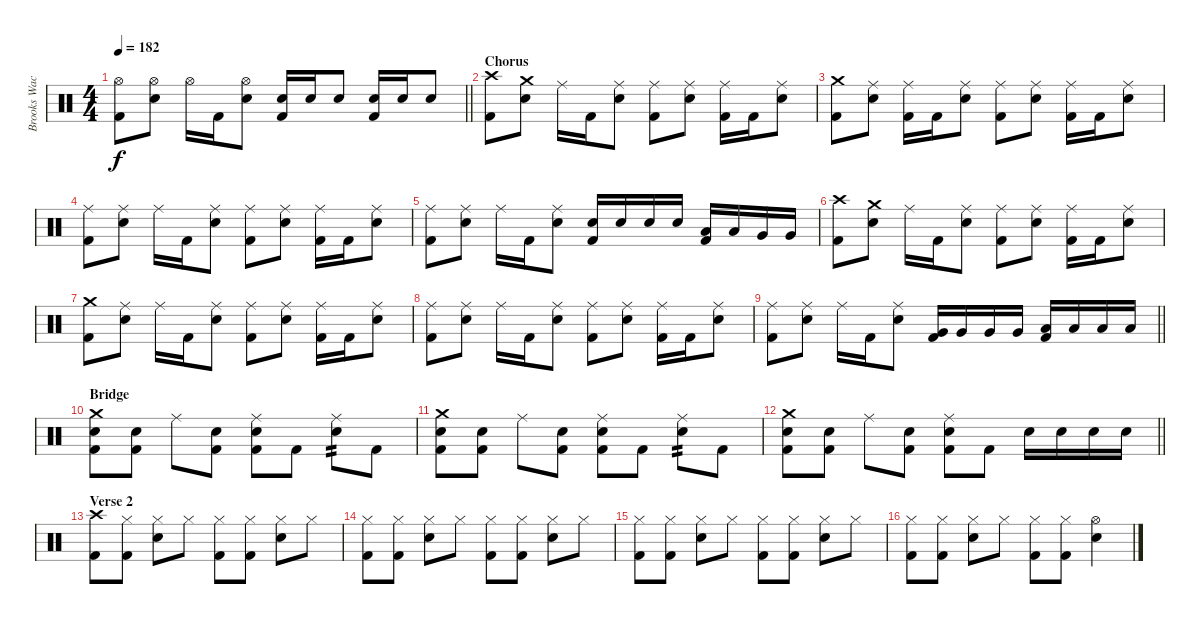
\track ("Brooks Wackerman" "Brooks Wac") {instrument percussion}
\staff {score}
\articulation defaults
\ts (4 4)
\tempo 182
\clef neutral
\barLineRight lightlight
\ks c
("Hi-Hat (open)" "Kick (hit) 2").8{dy f} ("Hi-Hat (open)" "Electric Snare (hit)").8 "Hi-Hat (open)".16 "Kick (hit) 2".16 ("Hi-Hat (open)" "Electric Snare (hit)").8 ("Electric Snare (hit)" "Kick (hit) 2").16 "Electric Snare (hit)".16 "Electric Snare (hit)".8 ("Electric Snare (hit)" "Kick (hit) 2").16 "Electric Snare (hit)".16 "Electric Snare (hit)".8 |
\section ("" "Chorus")
("Crash high (hit)" "Kick (hit) 2").8 ("Crash medium (hit)" "Electric Snare (hit)").8 "Ride (middle)".16 "Kick (hit) 2".16 ("Ride (middle)" "Electric Snare (hit)").8 ("Ride (middle)" "Kick (hit) 2").8 ("Ride (middle)" "Electric Snare (hit)").8 ("Ride (middle)" "Kick (hit) 2").16 "Kick (hit) 2".16 ("Ride (middle)" "Electric Snare (hit)").8 |
("Crash medium (hit)" "Kick (hit) 2").8 ("Ride (middle)" "Electric Snare (hit)").8 ("Ride (middle)" "Kick (hit) 2").16 "Kick (hit) 2".16 ("Ride (middle)" "Electric Snare (hit)").8 ("Ride (middle)" "Kick (hit) 2").8 ("Ride (middle)" "Electric Snare (hit)").8 ("Ride (middle)" "Kick (hit) 2").16 "Kick (hit) 2".16 ("Ride (middle)" "Electric Snare (hit)").8 |
("Ride (middle)" "Kick (hit) 2").8 ("Ride (middle)" "Electric Snare (hit)").8 "Ride (middle)".16 "Kick (hit) 2".16 ("Ride (middle)" "Electric Snare (hit)").8 ("Ride (middle)" "Kick (hit) 2").8 ("Ride (middle)" "Electric Snare (hit)").8 ("Ride (middle)" "Kick (hit) 2").16 "Kick (hit) 2".16 ("Ride (middle)" "Electric Snare (hit)").8 |
("Ride (middle)" "Kick (hit) 2").8 ("Ride (middle)" "Electric Snare (hit)").8 "Ride (middle)".16 "Kick (hit) 2".16 ("Ride (middle)" "Electric Snare (hit)").8 ("Electric Snare (hit)" "Kick (hit) 2").16 "Electric Snare (hit)".16 "Electric Snare (hit)".16 "Electric Snare (hit)".16 ("Low Tom (hit)" "Kick (hit) 2").16 "Low Tom (hit)".16 "Very Low Tom (hit)".16 "Very Low Tom (hit)".16 |
("Crash high (hit)" "Kick (hit) 2").8 ("Crash medium (hit)" "Electric Snare (hit)").8 "Ride (middle)".16 "Kick (hit) 2".16 ("Ride (middle)" "Electric Snare (hit)").8 ("Ride (middle)" "Kick (hit) 2").8 ("Ride (middle)" "Electric Snare (hit)").8 ("Ride (middle)" "Kick (hit) 2").16 "Kick (hit) 2".16 ("Ride (middle)" "Electric Snare (hit)").8 |
("Crash medium (hit)" "Kick (hit) 2").8 ("Ride (middle)" "Electric Snare (hit)").8 "Ride (middle)".16 "Kick (hit) 2".16 ("Ride (middle)" "Electric Snare (hit)").8 ("Ride (middle)" "Kick (hit) 2").8 ("Ride (middle)" "Electric Snare (hit)").8 ("Ride (middle)" "Kick (hit) 2").16 "Kick (hit) 2".16 ("Ride (middle)" "Electric Snare (hit)").8 |
("Ride (middle)" "Kick (hit) 2").8 ("Ride (middle)" "Electric Snare (hit)").8 "Ride (middle)".16 "Kick (hit) 2".16 ("Ride (middle)" "Electric Snare (hit)").8 ("Ride (middle)" "Kick (hit) 2").8 ("Ride (middle)" "Electric Snare (hit)").8 ("Ride (middle)" "Kick (hit) 2").16 "Kick (hit) 2".16 ("Ride (middle)" "Electric Snare (hit)").8 |
\barLineRight lightlight
("Ride (middle)" "Kick (hit) 2").8 ("Ride (middle)" "Electric Snare (hit)").8 "Ride (middle)".16 "Kick (hit) 2".16 ("Ride (middle)" "Electric Snare (hit)").8 ("Very Low Tom (hit)" "Kick (hit) 2").16 "Very Low Tom (hit)".16 "Very Low Tom (hit)".16 "Very Low Tom (hit)".16 ("Low Floor Tom (hit)" "Kick (hit) 2").16 "Low Floor Tom (hit)".16 "Low Floor Tom (hit)".16 "Low Floor Tom (hit)".16 |
\section ("" "Bridge")
("Crash medium (hit)" "Electric Snare (hit)" "Kick (hit) 2").8 ("Electric Snare (hit)" "Kick (hit) 2").8 "Ride (middle)".8 ("Electric Snare (hit)" "Kick (hit) 2").8 ("Ride (middle)" "Electric Snare (hit)" "Kick (hit) 2").8 "Kick (hit) 2".8 ("Ride (middle)" "Electric Snare (hit)").8{tp 2} "Kick (hit) 2".8 |
("Crash medium (hit)" "Electric Snare (hit)" "Kick (hit) 2").8 ("Electric Snare (hit)" "Kick (hit) 2").8 "Ride (middle)".8 ("Electric Snare (hit)" "Kick (hit) 2").8 ("Ride (middle)" "Electric Snare (hit)" "Kick (hit) 2").8 "Kick (hit) 2".8 ("Ride (middle)" "Electric Snare (hit)").8{tp 2} "Kick (hit) 2".8 |
\barLineRight lightlight
("Crash medium (hit)" "Electric Snare (hit)" "Kick (hit) 2").8 ("Electric Snare (hit)" "Kick (hit) 2").8 "Ride (middle)".8 ("Electric Snare (hit)" "Kick (hit) 2").8 ("Ride (middle)" "Electric Snare (hit)" "Kick (hit) 2").8 "Kick (hit) 2".8 "Electric Snare (hit)".16 "Electric Snare (hit)".16 "Electric Snare (hit)".16 "Electric Snare (hit)".16 |
\section ("" "Verse 2")
("Crash high (hit)" "Kick (hit) 2").8 ("Hi-Hat (closed)" "Kick (hit) 2").8 ("Hi-Hat (closed)" "Electric Snare (hit)").8 "Hi-Hat (closed)".8 ("Hi-Hat (closed)" "Kick (hit) 2").8 ("Hi-Hat (closed)" "Kick (hit) 2").8 ("Hi-Hat (closed)" "Electric Snare (hit)").8 "Hi-Hat (closed)".8 |
("Hi-Hat (closed)" "Kick (hit) 2").8 ("Hi-Hat (closed)" "Kick (hit) 2").8 ("Hi-Hat (closed)" "Electric Snare (hit)").8 "Hi-Hat (closed)".8 ("Hi-Hat (closed)" "Kick (hit) 2").8 ("Hi-Hat (closed)" "Kick (hit) 2").8 ("Hi-Hat (closed)" "Electric Snare (hit)").8 "Hi-Hat (closed)".8 |
("Hi-Hat (closed)" "Kick (hit) 2").8 ("Hi-Hat (closed)" "Kick (hit) 2").8 ("Hi-Hat (closed)" "Electric Snare (hit)").8 "Hi-Hat (closed)".8 ("Hi-Hat (closed)" "Kick (hit) 2").8 ("Hi-Hat (closed)" "Kick (hit) 2").8 ("Hi-Hat (closed)" "Electric Snare (hit)").8 "Hi-Hat (closed)".8 |
("Hi-Hat (closed)" "Kick (hit) 2").8 ("Hi-Hat (closed)" "Kick (hit) 2").8 ("Hi-Hat (closed)" "Electric Snare (hit)").8 "Hi-Hat (closed)".8 ("Hi-Hat (closed)" "Kick (hit) 2").8 ("Hi-Hat (closed)" "Kick (hit) 2").8 ("Hi-Hat (open)" "Electric Snare (hit)").4
